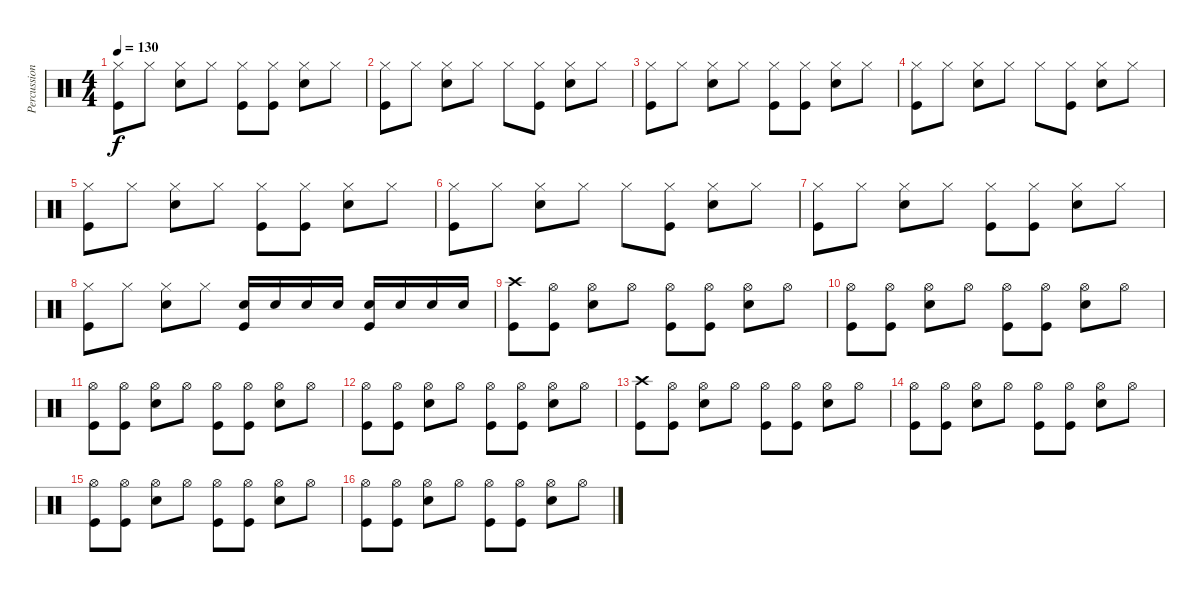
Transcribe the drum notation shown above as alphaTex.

\track ("Percussion" "Percussion") {instrument percussion}
\staff {score}
\articulation defaults
\ts (4 4)
\tempo 130
\clef neutral
\ks c
("Hi-Hat (closed)" "Kick (hit)").8{dy f} "Hi-Hat (closed)".8 ("Hi-Hat (closed)" "Electric Snare (hit)").8 "Hi-Hat (closed)".8 ("Hi-Hat (closed)" "Kick (hit)").8 ("Hi-Hat (closed)" "Kick (hit)").8 ("Hi-Hat (closed)" "Electric Snare (hit)").8 "Hi-Hat (closed)".8 |
("Hi-Hat (closed)" "Kick (hit)").8 "Hi-Hat (closed)".8 ("Hi-Hat (closed)" "Electric Snare (hit)").8 "Hi-Hat (closed)".8 "Hi-Hat (closed)".8 ("Hi-Hat (closed)" "Kick (hit)").8 ("Hi-Hat (closed)" "Electric Snare (hit)").8 "Hi-Hat (closed)".8 |
("Hi-Hat (closed)" "Kick (hit)").8 "Hi-Hat (closed)".8 ("Hi-Hat (closed)" "Electric Snare (hit)").8 "Hi-Hat (closed)".8 ("Hi-Hat (closed)" "Kick (hit)").8 ("Hi-Hat (closed)" "Kick (hit)").8 ("Hi-Hat (closed)" "Electric Snare (hit)").8 "Hi-Hat (closed)".8 |
("Hi-Hat (closed)" "Kick (hit)").8 "Hi-Hat (closed)".8 ("Hi-Hat (closed)" "Electric Snare (hit)").8 "Hi-Hat (closed)".8 "Hi-Hat (closed)".8 ("Hi-Hat (closed)" "Kick (hit)").8 ("Hi-Hat (closed)" "Electric Snare (hit)").8 "Hi-Hat (closed)".8 |
("Hi-Hat (closed)" "Kick (hit)").8 "Hi-Hat (closed)".8 ("Hi-Hat (closed)" "Electric Snare (hit)").8 "Hi-Hat (closed)".8 ("Hi-Hat (closed)" "Kick (hit)").8 ("Hi-Hat (closed)" "Kick (hit)").8 ("Hi-Hat (closed)" "Electric Snare (hit)").8 "Hi-Hat (closed)".8 |
("Hi-Hat (closed)" "Kick (hit)").8 "Hi-Hat (closed)".8 ("Hi-Hat (closed)" "Electric Snare (hit)").8 "Hi-Hat (closed)".8 "Hi-Hat (closed)".8 ("Hi-Hat (closed)" "Kick (hit)").8 ("Hi-Hat (closed)" "Electric Snare (hit)").8 "Hi-Hat (closed)".8 |
("Hi-Hat (closed)" "Kick (hit)").8 "Hi-Hat (closed)".8 ("Hi-Hat (closed)" "Electric Snare (hit)").8 "Hi-Hat (closed)".8 ("Hi-Hat (closed)" "Kick (hit)").8 ("Hi-Hat (closed)" "Kick (hit)").8 ("Hi-Hat (closed)" "Electric Snare (hit)").8 "Hi-Hat (closed)".8 |
("Hi-Hat (closed)" "Kick (hit)").8 "Hi-Hat (closed)".8 ("Hi-Hat (closed)" "Electric Snare (hit)").8 "Hi-Hat (closed)".8 ("Electric Snare (hit)" "Kick (hit)").16 "Electric Snare (hit)".16 "Electric Snare (hit)".16 "Electric Snare (hit)".16 ("Electric Snare (hit)" "Kick (hit)").16 "Electric Snare (hit)".16 "Electric Snare (hit)".16 "Electric Snare (hit)".16 |
("Crash high (hit)" "Kick (hit)").8 ("Hi-Hat (open)" "Kick (hit)").8 ("Hi-Hat (open)" "Electric Snare (hit)").8 "Hi-Hat (open)".8 ("Hi-Hat (open)" "Kick (hit)").8 ("Hi-Hat (open)" "Kick (hit)").8 ("Hi-Hat (open)" "Electric Snare (hit)").8 "Hi-Hat (open)".8 |
("Hi-Hat (open)" "Kick (hit)").8 ("Hi-Hat (open)" "Kick (hit)").8 ("Hi-Hat (open)" "Electric Snare (hit)").8 "Hi-Hat (open)".8 ("Hi-Hat (open)" "Kick (hit)").8 ("Hi-Hat (open)" "Kick (hit)").8 ("Hi-Hat (open)" "Electric Snare (hit)").8 "Hi-Hat (open)".8 |
("Hi-Hat (open)" "Kick (hit)").8 ("Hi-Hat (open)" "Kick (hit)").8 ("Hi-Hat (open)" "Electric Snare (hit)").8 "Hi-Hat (open)".8 ("Hi-Hat (open)" "Kick (hit)").8 ("Hi-Hat (open)" "Kick (hit)").8 ("Hi-Hat (open)" "Electric Snare (hit)").8 "Hi-Hat (open)".8 |
("Hi-Hat (open)" "Kick (hit)").8 ("Hi-Hat (open)" "Kick (hit)").8 ("Hi-Hat (open)" "Electric Snare (hit)").8 "Hi-Hat (open)".8 ("Hi-Hat (open)" "Kick (hit)").8 ("Hi-Hat (open)" "Kick (hit)").8 ("Hi-Hat (open)" "Electric Snare (hit)").8 "Hi-Hat (open)".8 |
("Crash high (hit)" "Kick (hit)").8 ("Hi-Hat (open)" "Kick (hit)").8 ("Hi-Hat (open)" "Electric Snare (hit)").8 "Hi-Hat (open)".8 ("Hi-Hat (open)" "Kick (hit)").8 ("Hi-Hat (open)" "Kick (hit)").8 ("Hi-Hat (open)" "Electric Snare (hit)").8 "Hi-Hat (open)".8 |
("Hi-Hat (open)" "Kick (hit)").8 ("Hi-Hat (open)" "Kick (hit)").8 ("Hi-Hat (open)" "Electric Snare (hit)").8 "Hi-Hat (open)".8 ("Hi-Hat (open)" "Kick (hit)").8 ("Hi-Hat (open)" "Kick (hit)").8 ("Hi-Hat (open)" "Electric Snare (hit)").8 "Hi-Hat (open)".8 |
("Hi-Hat (open)" "Kick (hit)").8 ("Hi-Hat (open)" "Kick (hit)").8 ("Hi-Hat (open)" "Electric Snare (hit)").8 "Hi-Hat (open)".8 ("Hi-Hat (open)" "Kick (hit)").8 ("Hi-Hat (open)" "Kick (hit)").8 ("Hi-Hat (open)" "Electric Snare (hit)").8 "Hi-Hat (open)".8 |
("Hi-Hat (open)" "Kick (hit)").8 ("Hi-Hat (open)" "Kick (hit)").8 ("Hi-Hat (open)" "Electric Snare (hit)").8 "Hi-Hat (open)".8 ("Hi-Hat (open)" "Kick (hit)").8 ("Hi-Hat (open)" "Kick (hit)").8 ("Hi-Hat (open)" "Electric Snare (hit)").8 "Hi-Hat (open)".8
